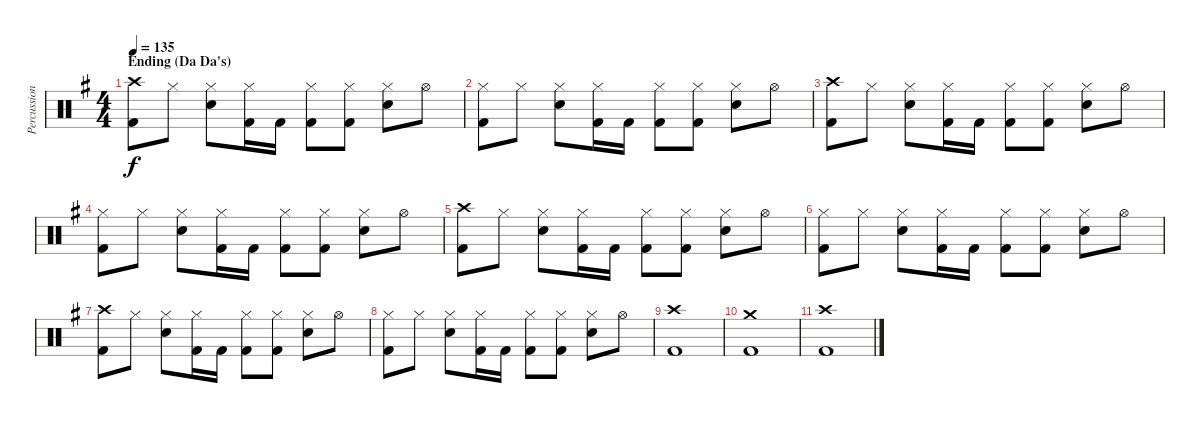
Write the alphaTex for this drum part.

\track ("Percussion" "Percussion") {instrument percussion}
\staff {score}
\articulation defaults
\ts (4 4)
\section ("" "Ending (Da Da's)")
\tempo 135
\clef neutral
\ks g
("Crash high (hit)" "Kick (hit) 2").8{dy f} "Hi-Hat (closed)".8 ("Hi-Hat (closed)" "Electric Snare (hit)").8 ("Hi-Hat (closed)" "Kick (hit) 2").16 "Kick (hit) 2".16 ("Hi-Hat (closed)" "Kick (hit) 2").8 ("Hi-Hat (closed)" "Kick (hit) 2").8 ("Hi-Hat (closed)" "Electric Snare (hit)").8 "Hi-Hat (open)".8 |
("Hi-Hat (closed)" "Kick (hit) 2").8 "Hi-Hat (closed)".8 ("Hi-Hat (closed)" "Electric Snare (hit)").8 ("Hi-Hat (closed)" "Kick (hit) 2").16 "Kick (hit) 2".16 ("Hi-Hat (closed)" "Kick (hit) 2").8 ("Hi-Hat (closed)" "Kick (hit) 2").8 ("Hi-Hat (closed)" "Electric Snare (hit)").8 "Hi-Hat (open)".8 |
("Crash high (hit)" "Kick (hit) 2").8 "Hi-Hat (closed)".8 ("Hi-Hat (closed)" "Electric Snare (hit)").8 ("Hi-Hat (closed)" "Kick (hit) 2").16 "Kick (hit) 2".16 ("Hi-Hat (closed)" "Kick (hit) 2").8 ("Hi-Hat (closed)" "Kick (hit) 2").8 ("Hi-Hat (closed)" "Electric Snare (hit)").8 "Hi-Hat (open)".8 |
("Hi-Hat (closed)" "Kick (hit) 2").8 "Hi-Hat (closed)".8 ("Hi-Hat (closed)" "Electric Snare (hit)").8 ("Hi-Hat (closed)" "Kick (hit) 2").16 "Kick (hit) 2".16 ("Hi-Hat (closed)" "Kick (hit) 2").8 ("Hi-Hat (closed)" "Kick (hit) 2").8 ("Hi-Hat (closed)" "Electric Snare (hit)").8 "Hi-Hat (open)".8 |
("Crash high (hit)" "Kick (hit) 2").8 "Hi-Hat (closed)".8 ("Hi-Hat (closed)" "Electric Snare (hit)").8 ("Hi-Hat (closed)" "Kick (hit) 2").16 "Kick (hit) 2".16 ("Hi-Hat (closed)" "Kick (hit) 2").8 ("Hi-Hat (closed)" "Kick (hit) 2").8 ("Hi-Hat (closed)" "Electric Snare (hit)").8 "Hi-Hat (open)".8 |
("Hi-Hat (closed)" "Kick (hit) 2").8 "Hi-Hat (closed)".8 ("Hi-Hat (closed)" "Electric Snare (hit)").8 ("Hi-Hat (closed)" "Kick (hit) 2").16 "Kick (hit) 2".16 ("Hi-Hat (closed)" "Kick (hit) 2").8 ("Hi-Hat (closed)" "Kick (hit) 2").8 ("Hi-Hat (closed)" "Electric Snare (hit)").8 "Hi-Hat (open)".8 |
("Crash high (hit)" "Kick (hit) 2").8 "Hi-Hat (closed)".8 ("Hi-Hat (closed)" "Electric Snare (hit)").8 ("Hi-Hat (closed)" "Kick (hit) 2").16 "Kick (hit) 2".16 ("Hi-Hat (closed)" "Kick (hit) 2").8 ("Hi-Hat (closed)" "Kick (hit) 2").8 ("Hi-Hat (closed)" "Electric Snare (hit)").8 "Hi-Hat (open)".8 |
("Hi-Hat (closed)" "Kick (hit) 2").8 "Hi-Hat (closed)".8 ("Hi-Hat (closed)" "Electric Snare (hit)").8 ("Hi-Hat (closed)" "Kick (hit) 2").16 "Kick (hit) 2".16 ("Hi-Hat (closed)" "Kick (hit) 2").8 ("Hi-Hat (closed)" "Kick (hit) 2").8 ("Hi-Hat (closed)" "Electric Snare (hit)").8 "Hi-Hat (open)".8 |
("Crash high (hit)" "Kick (hit) 2").1 |
("Crash medium (hit)" "Kick (hit) 2").1 |
("Crash high (hit)" "Kick (hit) 2").1
